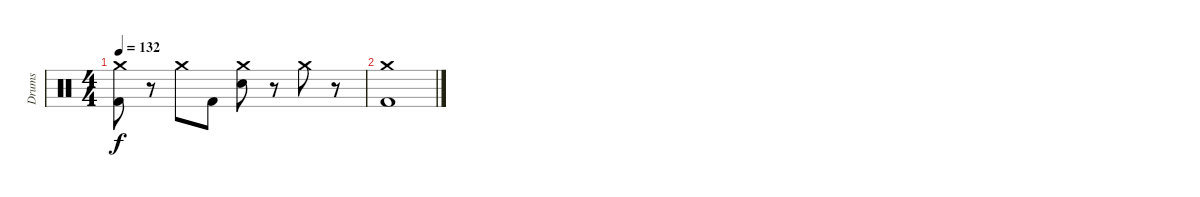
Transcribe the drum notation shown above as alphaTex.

\track ("Drums" "Drums") {instrument percussion}
\staff {score}
\articulation defaults
\ts (4 4)
\tempo 132
\clef neutral
\ks c
("Crash medium (hit)" "Kick (hit) 2").8{dy f} r.8 "Crash medium (hit)".8 "Kick (hit) 2".8 ("Crash medium (hit)" "Snare (hit) 2").8 r.8 "Crash medium (hit)".8 r.8 |
("Crash medium (hit)" "Kick (hit) 2").1
